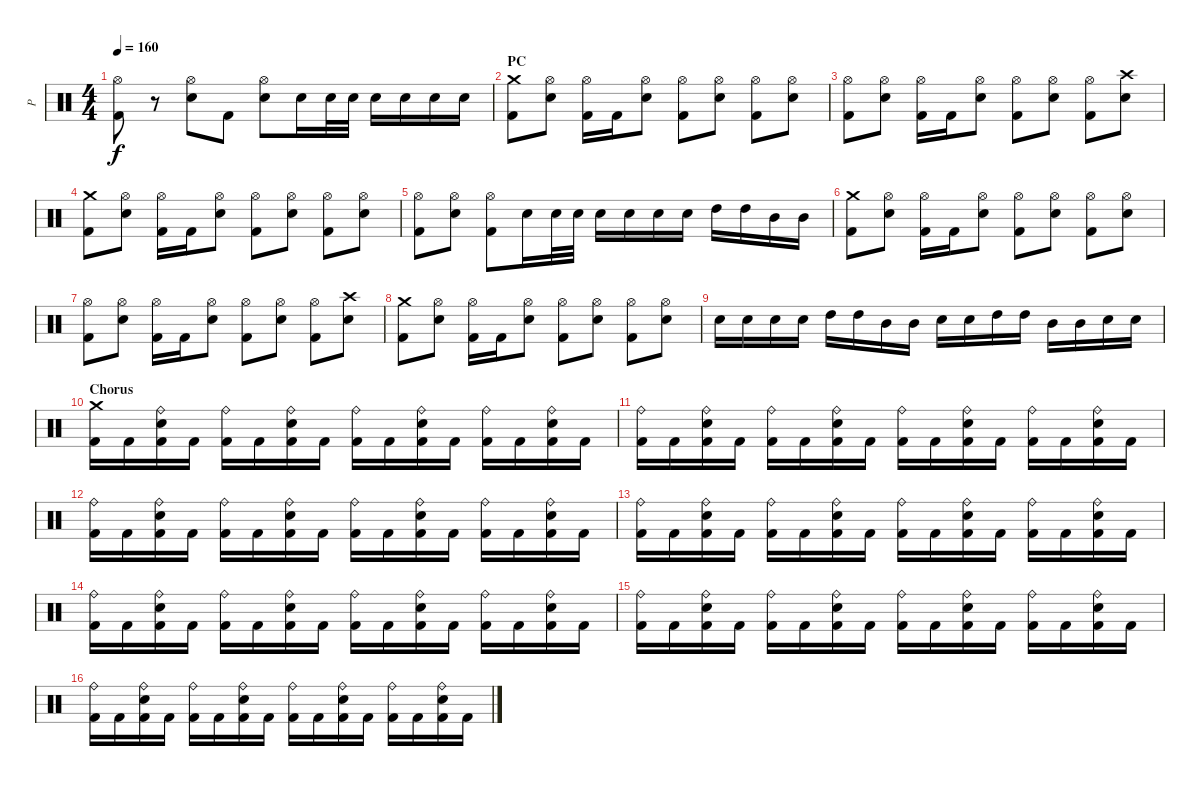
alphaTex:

\track ("P" "P") {instrument percussion}
\staff {score}
\articulation defaults
\ts (4 4)
\tempo 160
\clef neutral
\ks c
("Hi-Hat (open)" "Kick (hit) 2").8{dy f} r.8 ("Hi-Hat (open)" "Electric Snare (hit)").8 "Kick (hit) 2".8 ("Hi-Hat (open)" "Electric Snare (hit)").8 "Electric Snare (hit)".16 "Electric Snare (hit)".32 "Electric Snare (hit)".32 "Electric Snare (hit)".16 "Electric Snare (hit)".16 "Electric Snare (hit)".16 "Electric Snare (hit)".16 |
\section ("" "PC")
("Crash medium (hit)" "Kick (hit) 2").8 ("Hi-Hat (open)" "Electric Snare (hit)").8 ("Hi-Hat (open)" "Kick (hit) 2").16 "Kick (hit) 2".16 ("Hi-Hat (open)" "Electric Snare (hit)").8 ("Hi-Hat (open)" "Kick (hit) 2").8 ("Hi-Hat (open)" "Electric Snare (hit)").8 ("Hi-Hat (open)" "Kick (hit) 2").8 ("Hi-Hat (open)" "Electric Snare (hit)").8 |
("Hi-Hat (open)" "Kick (hit) 2").8 ("Hi-Hat (open)" "Electric Snare (hit)").8 ("Hi-Hat (open)" "Kick (hit) 2").16 "Kick (hit) 2".16 ("Hi-Hat (open)" "Electric Snare (hit)").8 ("Hi-Hat (open)" "Kick (hit) 2").8 ("Hi-Hat (open)" "Electric Snare (hit)").8 ("Hi-Hat (open)" "Kick (hit) 2").8 ("Crash high (hit)" "Electric Snare (hit)").8 |
("Crash medium (hit)" "Kick (hit) 2").8 ("Hi-Hat (open)" "Electric Snare (hit)").8 ("Hi-Hat (open)" "Kick (hit) 2").16 "Kick (hit) 2".16 ("Hi-Hat (open)" "Electric Snare (hit)").8 ("Hi-Hat (open)" "Kick (hit) 2").8 ("Hi-Hat (open)" "Electric Snare (hit)").8 ("Hi-Hat (open)" "Kick (hit) 2").8 ("Hi-Hat (open)" "Electric Snare (hit)").8 |
("Hi-Hat (open)" "Kick (hit) 2").8 ("Hi-Hat (open)" "Electric Snare (hit)").8 ("Hi-Hat (open)" "Kick (hit) 2").8 "Electric Snare (hit)".16 "Electric Snare (hit)".32 "Electric Snare (hit)".32 "Electric Snare (hit)".16 "Electric Snare (hit)".16 "Electric Snare (hit)".16 "Electric Snare (hit)".16 "High Tom (hit)".16 "High Tom (hit)".16 "Mid Tom (hit)".16 "Mid Tom (hit)".16 |
("Crash medium (hit)" "Kick (hit) 2").8 ("Hi-Hat (open)" "Electric Snare (hit)").8 ("Hi-Hat (open)" "Kick (hit) 2").16 "Kick (hit) 2".16 ("Hi-Hat (open)" "Electric Snare (hit)").8 ("Hi-Hat (open)" "Kick (hit) 2").8 ("Hi-Hat (open)" "Electric Snare (hit)").8 ("Hi-Hat (open)" "Kick (hit) 2").8 ("Hi-Hat (open)" "Electric Snare (hit)").8 |
("Hi-Hat (open)" "Kick (hit) 2").8 ("Hi-Hat (open)" "Electric Snare (hit)").8 ("Hi-Hat (open)" "Kick (hit) 2").16 "Kick (hit) 2".16 ("Hi-Hat (open)" "Electric Snare (hit)").8 ("Hi-Hat (open)" "Kick (hit) 2").8 ("Hi-Hat (open)" "Electric Snare (hit)").8 ("Hi-Hat (open)" "Kick (hit) 2").8 ("Crash high (hit)" "Electric Snare (hit)").8 |
("Crash medium (hit)" "Kick (hit) 2").8 ("Hi-Hat (open)" "Electric Snare (hit)").8 ("Hi-Hat (open)" "Kick (hit) 2").16 "Kick (hit) 2".16 ("Hi-Hat (open)" "Electric Snare (hit)").8 ("Hi-Hat (open)" "Kick (hit) 2").8 ("Hi-Hat (open)" "Electric Snare (hit)").8 ("Hi-Hat (open)" "Kick (hit) 2").8 ("Hi-Hat (open)" "Electric Snare (hit)").8 |
"Electric Snare (hit)".16 "Electric Snare (hit)".16 "Electric Snare (hit)".16 "Electric Snare (hit)".16 "High Tom (hit)".16 "High Tom (hit)".16 "Mid Tom (hit)".16 "Mid Tom (hit)".16 "Electric Snare (hit)".16 "Electric Snare (hit)".16 "High Tom (hit)".16 "High Tom (hit)".16 "Mid Tom (hit)".16 "Mid Tom (hit)".16 "Electric Snare (hit)".16 "Electric Snare (hit)".16 |
\section ("" "Chorus")
("Crash medium (hit)" "Kick (hit) 2").16 "Kick (hit) 2".16 ("Ride (bell)" "Electric Snare (hit)" "Kick (hit) 2").16 "Kick (hit) 2".16 ("Ride (bell)" "Kick (hit) 2").16 "Kick (hit) 2".16 ("Ride (bell)" "Electric Snare (hit)" "Kick (hit) 2").16 "Kick (hit) 2".16 ("Ride (bell)" "Kick (hit) 2").16 "Kick (hit) 2".16 ("Ride (bell)" "Electric Snare (hit)" "Kick (hit) 2").16 "Kick (hit) 2".16 ("Ride (bell)" "Kick (hit) 2").16 "Kick (hit) 2".16 ("Ride (bell)" "Electric Snare (hit)" "Kick (hit) 2").16 "Kick (hit) 2".16 |
("Ride (bell)" "Kick (hit) 2").16 "Kick (hit) 2".16 ("Ride (bell)" "Electric Snare (hit)" "Kick (hit) 2").16 "Kick (hit) 2".16 ("Ride (bell)" "Kick (hit) 2").16 "Kick (hit) 2".16 ("Ride (bell)" "Electric Snare (hit)" "Kick (hit) 2").16 "Kick (hit) 2".16 ("Ride (bell)" "Kick (hit) 2").16 "Kick (hit) 2".16 ("Ride (bell)" "Electric Snare (hit)" "Kick (hit) 2").16 "Kick (hit) 2".16 ("Ride (bell)" "Kick (hit) 2").16 "Kick (hit) 2".16 ("Ride (bell)" "Electric Snare (hit)" "Kick (hit) 2").16 "Kick (hit) 2".16 |
("Ride (bell)" "Kick (hit) 2").16 "Kick (hit) 2".16 ("Ride (bell)" "Electric Snare (hit)" "Kick (hit) 2").16 "Kick (hit) 2".16 ("Ride (bell)" "Kick (hit) 2").16 "Kick (hit) 2".16 ("Ride (bell)" "Electric Snare (hit)" "Kick (hit) 2").16 "Kick (hit) 2".16 ("Ride (bell)" "Kick (hit) 2").16 "Kick (hit) 2".16 ("Ride (bell)" "Electric Snare (hit)" "Kick (hit) 2").16 "Kick (hit) 2".16 ("Ride (bell)" "Kick (hit) 2").16 "Kick (hit) 2".16 ("Ride (bell)" "Electric Snare (hit)" "Kick (hit) 2").16 "Kick (hit) 2".16 |
("Ride (bell)" "Kick (hit) 2").16 "Kick (hit) 2".16 ("Ride (bell)" "Electric Snare (hit)" "Kick (hit) 2").16 "Kick (hit) 2".16 ("Ride (bell)" "Kick (hit) 2").16 "Kick (hit) 2".16 ("Ride (bell)" "Electric Snare (hit)" "Kick (hit) 2").16 "Kick (hit) 2".16 ("Ride (bell)" "Kick (hit) 2").16 "Kick (hit) 2".16 ("Ride (bell)" "Electric Snare (hit)" "Kick (hit) 2").16 "Kick (hit) 2".16 ("Ride (bell)" "Kick (hit) 2").16 "Kick (hit) 2".16 ("Ride (bell)" "Electric Snare (hit)" "Kick (hit) 2").16 "Kick (hit) 2".16 |
("Ride (bell)" "Kick (hit) 2").16 "Kick (hit) 2".16 ("Ride (bell)" "Electric Snare (hit)" "Kick (hit) 2").16 "Kick (hit) 2".16 ("Ride (bell)" "Kick (hit) 2").16 "Kick (hit) 2".16 ("Ride (bell)" "Electric Snare (hit)" "Kick (hit) 2").16 "Kick (hit) 2".16 ("Ride (bell)" "Kick (hit) 2").16 "Kick (hit) 2".16 ("Ride (bell)" "Electric Snare (hit)" "Kick (hit) 2").16 "Kick (hit) 2".16 ("Ride (bell)" "Kick (hit) 2").16 "Kick (hit) 2".16 ("Ride (bell)" "Electric Snare (hit)" "Kick (hit) 2").16 "Kick (hit) 2".16 |
("Ride (bell)" "Kick (hit) 2").16 "Kick (hit) 2".16 ("Ride (bell)" "Electric Snare (hit)" "Kick (hit) 2").16 "Kick (hit) 2".16 ("Ride (bell)" "Kick (hit) 2").16 "Kick (hit) 2".16 ("Ride (bell)" "Electric Snare (hit)" "Kick (hit) 2").16 "Kick (hit) 2".16 ("Ride (bell)" "Kick (hit) 2").16 "Kick (hit) 2".16 ("Ride (bell)" "Electric Snare (hit)" "Kick (hit) 2").16 "Kick (hit) 2".16 ("Ride (bell)" "Kick (hit) 2").16 "Kick (hit) 2".16 ("Ride (bell)" "Electric Snare (hit)" "Kick (hit) 2").16 "Kick (hit) 2".16 |
("Ride (bell)" "Kick (hit) 2").16 "Kick (hit) 2".16 ("Ride (bell)" "Electric Snare (hit)" "Kick (hit) 2").16 "Kick (hit) 2".16 ("Ride (bell)" "Kick (hit) 2").16 "Kick (hit) 2".16 ("Ride (bell)" "Electric Snare (hit)" "Kick (hit) 2").16 "Kick (hit) 2".16 ("Ride (bell)" "Kick (hit) 2").16 "Kick (hit) 2".16 ("Ride (bell)" "Electric Snare (hit)" "Kick (hit) 2").16 "Kick (hit) 2".16 ("Ride (bell)" "Kick (hit) 2").16 "Kick (hit) 2".16 ("Ride (bell)" "Electric Snare (hit)" "Kick (hit) 2").16 "Kick (hit) 2".16
